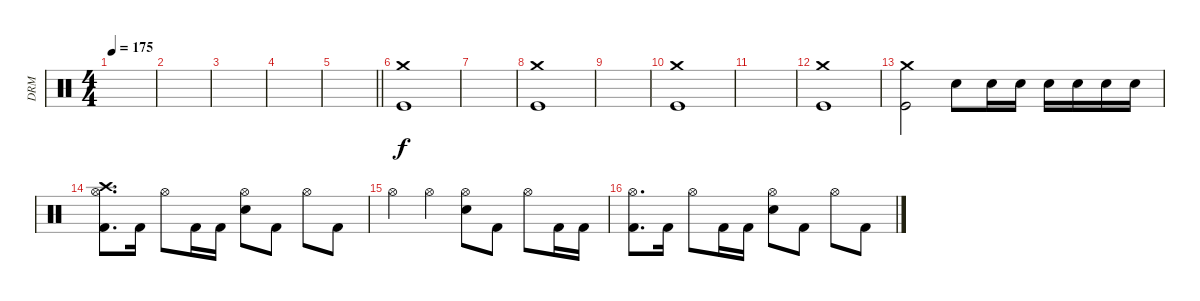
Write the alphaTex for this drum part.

\track ("DRM " "DRM ") {instrument percussion}
\staff {score}
\articulation defaults
\ts (4 4)
\tempo 175
\clef neutral
\ks c
|
|
|
|
\barLineRight lightlight
|
("Crash medium (hit)" "Kick (hit)").1 |
|
("Crash medium (hit)" "Kick (hit)").1 |
|
("Crash medium (hit)" "Kick (hit)").1 |
|
("Crash medium (hit)" "Kick (hit)").1 |
("Crash medium (hit)" "Kick (hit)").2 "Snare (hit) 2".8 "Snare (hit) 2".16 "Snare (hit) 2".16 "Snare (hit) 2".16 "Snare (hit) 2".16 "Snare (hit) 2".16 "Snare (hit) 2".16 |
("Hi-Hat (open)" "Crash high (hit)" "Kick (hit) 2").8{d} "Kick (hit) 2".16 "Hi-Hat (open)".8 "Kick (hit) 2".16 "Kick (hit) 2".16 ("Hi-Hat (open)" "Electric Snare (hit)").8 "Kick (hit) 2".8 "Hi-Hat (open)".8 "Kick (hit) 2".8 |
"Hi-Hat (open)".4 "Hi-Hat (open)".4 ("Hi-Hat (open)" "Electric Snare (hit)").8 "Kick (hit) 2".8 "Hi-Hat (open)".8 "Kick (hit) 2".16 "Kick (hit) 2".16 |
("Hi-Hat (open)" "Kick (hit) 2").8{d} "Kick (hit) 2".16 "Hi-Hat (open)".8 "Kick (hit) 2".16 "Kick (hit) 2".16 ("Hi-Hat (open)" "Electric Snare (hit)").8 "Kick (hit) 2".8 "Hi-Hat (open)".8 "Kick (hit) 2".8
